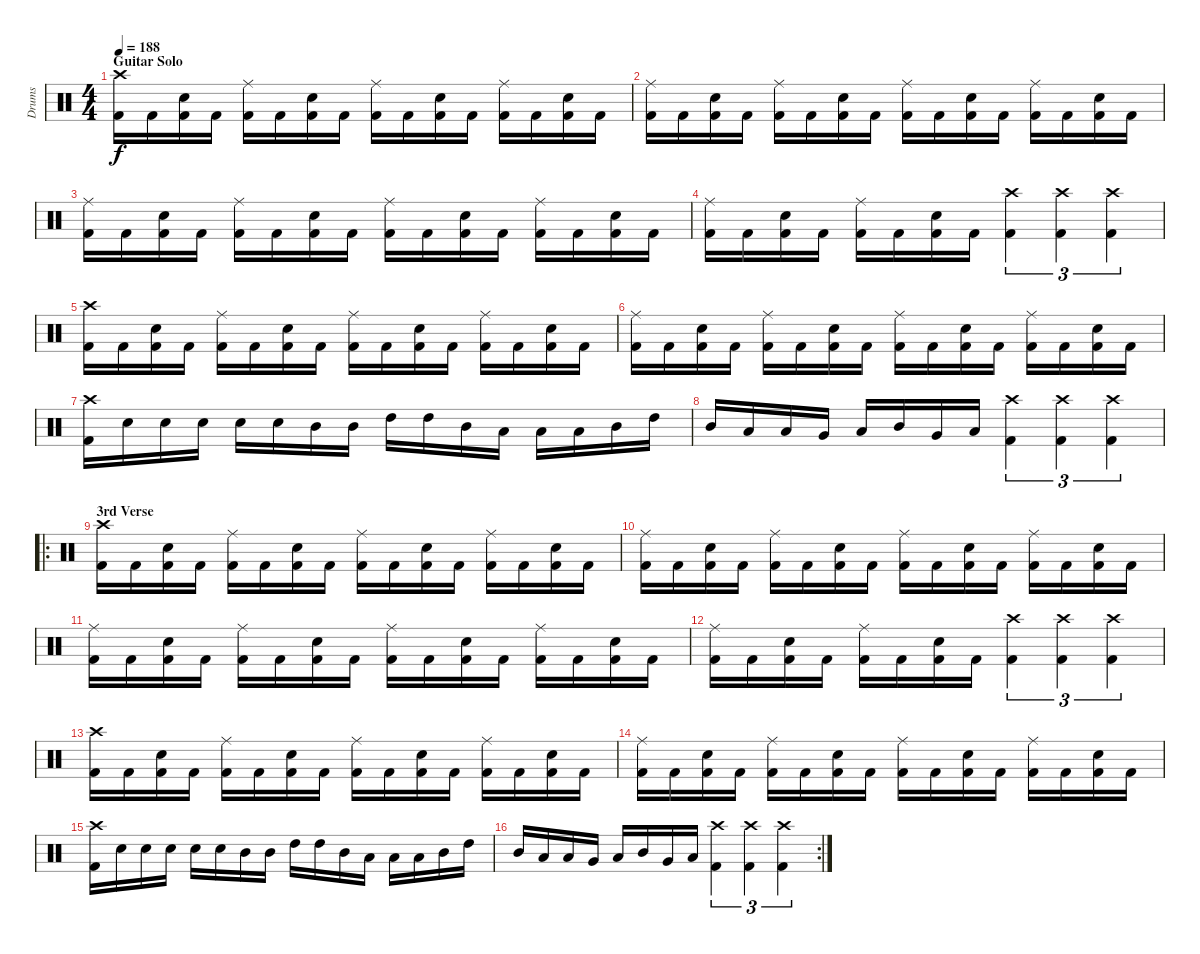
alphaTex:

\track ("Drums" "Drums") {instrument percussion}
\staff {score}
\articulation defaults
\ts (4 4)
\section ("" "Guitar Solo")
\tempo 188
\clef neutral
\ks c
("Crash high (hit)" "Kick (hit) 2").16{dy f} "Kick (hit) 2".16 ("Electric Snare (hit)" "Kick (hit) 2").16 "Kick (hit) 2".16 ("Ride (middle)" "Kick (hit) 2").16 "Kick (hit) 2".16 ("Electric Snare (hit)" "Kick (hit) 2").16 "Kick (hit) 2".16 ("Ride (middle)" "Kick (hit) 2").16 "Kick (hit) 2".16 ("Electric Snare (hit)" "Kick (hit) 2").16 "Kick (hit) 2".16 ("Ride (middle)" "Kick (hit) 2").16 "Kick (hit) 2".16 ("Electric Snare (hit)" "Kick (hit) 2").16 "Kick (hit) 2".16 |
("Ride (middle)" "Kick (hit) 2").16 "Kick (hit) 2".16 ("Electric Snare (hit)" "Kick (hit) 2").16 "Kick (hit) 2".16 ("Ride (middle)" "Kick (hit) 2").16 "Kick (hit) 2".16 ("Electric Snare (hit)" "Kick (hit) 2").16 "Kick (hit) 2".16 ("Ride (middle)" "Kick (hit) 2").16 "Kick (hit) 2".16 ("Electric Snare (hit)" "Kick (hit) 2").16 "Kick (hit) 2".16 ("Ride (middle)" "Kick (hit) 2").16 "Kick (hit) 2".16 ("Electric Snare (hit)" "Kick (hit) 2").16 "Kick (hit) 2".16 |
("Ride (middle)" "Kick (hit) 2").16 "Kick (hit) 2".16 ("Electric Snare (hit)" "Kick (hit) 2").16 "Kick (hit) 2".16 ("Ride (middle)" "Kick (hit) 2").16 "Kick (hit) 2".16 ("Electric Snare (hit)" "Kick (hit) 2").16 "Kick (hit) 2".16 ("Ride (middle)" "Kick (hit) 2").16 "Kick (hit) 2".16 ("Electric Snare (hit)" "Kick (hit) 2").16 "Kick (hit) 2".16 ("Ride (middle)" "Kick (hit) 2").16 "Kick (hit) 2".16 ("Electric Snare (hit)" "Kick (hit) 2").16 "Kick (hit) 2".16 |
("Ride (middle)" "Kick (hit) 2").16 "Kick (hit) 2".16 ("Electric Snare (hit)" "Kick (hit) 2").16 "Kick (hit) 2".16 ("Ride (middle)" "Kick (hit) 2").16 "Kick (hit) 2".16 ("Electric Snare (hit)" "Kick (hit) 2").16 "Kick (hit) 2".16 ("Crash high (hit)" "Kick (hit) 2").4{tu (3 2)} ("Crash high (hit)" "Kick (hit) 2").4{tu (3 2)} ("Crash high (hit)" "Kick (hit) 2").4{tu (3 2)} |
("Crash high (hit)" "Kick (hit) 2").16 "Kick (hit) 2".16 ("Electric Snare (hit)" "Kick (hit) 2").16 "Kick (hit) 2".16 ("Ride (middle)" "Kick (hit) 2").16 "Kick (hit) 2".16 ("Electric Snare (hit)" "Kick (hit) 2").16 "Kick (hit) 2".16 ("Ride (middle)" "Kick (hit) 2").16 "Kick (hit) 2".16 ("Electric Snare (hit)" "Kick (hit) 2").16 "Kick (hit) 2".16 ("Ride (middle)" "Kick (hit) 2").16 "Kick (hit) 2".16 ("Electric Snare (hit)" "Kick (hit) 2").16 "Kick (hit) 2".16 |
("Ride (middle)" "Kick (hit) 2").16 "Kick (hit) 2".16 ("Electric Snare (hit)" "Kick (hit) 2").16 "Kick (hit) 2".16 ("Ride (middle)" "Kick (hit) 2").16 "Kick (hit) 2".16 ("Electric Snare (hit)" "Kick (hit) 2").16 "Kick (hit) 2".16 ("Ride (middle)" "Kick (hit) 2").16 "Kick (hit) 2".16 ("Electric Snare (hit)" "Kick (hit) 2").16 "Kick (hit) 2".16 ("Ride (middle)" "Kick (hit) 2").16 "Kick (hit) 2".16 ("Electric Snare (hit)" "Kick (hit) 2").16 "Kick (hit) 2".16 |
("Crash high (hit)" "Kick (hit) 2").16 "Electric Snare (hit)".16 "Electric Snare (hit)".16 "Electric Snare (hit)".16 "Electric Snare (hit)".16 "Electric Snare (hit)".16 "Mid Tom (hit)".16 "Mid Tom (hit)".16 "High Tom (hit)".16 "High Tom (hit)".16 "Mid Tom (hit)".16 "Low Tom (hit)".16 "Low Tom (hit)".16 "Low Tom (hit)".16 "Mid Tom (hit)".16 "High Tom (hit)".16 |
"Mid Tom (hit)".16 "Low Tom (hit)".16 "Low Tom (hit)".16 "Very Low Tom (hit)".16 "Low Tom (hit)".16 "Mid Tom (hit)".16 "Very Low Tom (hit)".16 "Low Floor Tom (hit)".16 ("Crash high (hit)" "Kick (hit) 2").4{tu (3 2)} ("Crash high (hit)" "Kick (hit) 2").4{tu (3 2)} ("Crash high (hit)" "Kick (hit) 2").4{tu (3 2)} |
\ro
\section ("" "3rd Verse")
("Crash high (hit)" "Kick (hit) 2").16 "Kick (hit) 2".16 ("Electric Snare (hit)" "Kick (hit) 2").16 "Kick (hit) 2".16 ("Ride (middle)" "Kick (hit) 2").16 "Kick (hit) 2".16 ("Electric Snare (hit)" "Kick (hit) 2").16 "Kick (hit) 2".16 ("Ride (middle)" "Kick (hit) 2").16 "Kick (hit) 2".16 ("Electric Snare (hit)" "Kick (hit) 2").16 "Kick (hit) 2".16 ("Ride (middle)" "Kick (hit) 2").16 "Kick (hit) 2".16 ("Electric Snare (hit)" "Kick (hit) 2").16 "Kick (hit) 2".16 |
("Ride (middle)" "Kick (hit) 2").16 "Kick (hit) 2".16 ("Electric Snare (hit)" "Kick (hit) 2").16 "Kick (hit) 2".16 ("Ride (middle)" "Kick (hit) 2").16 "Kick (hit) 2".16 ("Electric Snare (hit)" "Kick (hit) 2").16 "Kick (hit) 2".16 ("Ride (middle)" "Kick (hit) 2").16 "Kick (hit) 2".16 ("Electric Snare (hit)" "Kick (hit) 2").16 "Kick (hit) 2".16 ("Ride (middle)" "Kick (hit) 2").16 "Kick (hit) 2".16 ("Electric Snare (hit)" "Kick (hit) 2").16 "Kick (hit) 2".16 |
("Ride (middle)" "Kick (hit) 2").16 "Kick (hit) 2".16 ("Electric Snare (hit)" "Kick (hit) 2").16 "Kick (hit) 2".16 ("Ride (middle)" "Kick (hit) 2").16 "Kick (hit) 2".16 ("Electric Snare (hit)" "Kick (hit) 2").16 "Kick (hit) 2".16 ("Ride (middle)" "Kick (hit) 2").16 "Kick (hit) 2".16 ("Electric Snare (hit)" "Kick (hit) 2").16 "Kick (hit) 2".16 ("Ride (middle)" "Kick (hit) 2").16 "Kick (hit) 2".16 ("Electric Snare (hit)" "Kick (hit) 2").16 "Kick (hit) 2".16 |
("Ride (middle)" "Kick (hit) 2").16 "Kick (hit) 2".16 ("Electric Snare (hit)" "Kick (hit) 2").16 "Kick (hit) 2".16 ("Ride (middle)" "Kick (hit) 2").16 "Kick (hit) 2".16 ("Electric Snare (hit)" "Kick (hit) 2").16 "Kick (hit) 2".16 ("Crash high (hit)" "Kick (hit) 2").4{tu (3 2)} ("Crash high (hit)" "Kick (hit) 2").4{tu (3 2)} ("Crash high (hit)" "Kick (hit) 2").4{tu (3 2)} |
("Crash high (hit)" "Kick (hit) 2").16 "Kick (hit) 2".16 ("Electric Snare (hit)" "Kick (hit) 2").16 "Kick (hit) 2".16 ("Ride (middle)" "Kick (hit) 2").16 "Kick (hit) 2".16 ("Electric Snare (hit)" "Kick (hit) 2").16 "Kick (hit) 2".16 ("Ride (middle)" "Kick (hit) 2").16 "Kick (hit) 2".16 ("Electric Snare (hit)" "Kick (hit) 2").16 "Kick (hit) 2".16 ("Ride (middle)" "Kick (hit) 2").16 "Kick (hit) 2".16 ("Electric Snare (hit)" "Kick (hit) 2").16 "Kick (hit) 2".16 |
("Ride (middle)" "Kick (hit) 2").16 "Kick (hit) 2".16 ("Electric Snare (hit)" "Kick (hit) 2").16 "Kick (hit) 2".16 ("Ride (middle)" "Kick (hit) 2").16 "Kick (hit) 2".16 ("Electric Snare (hit)" "Kick (hit) 2").16 "Kick (hit) 2".16 ("Ride (middle)" "Kick (hit) 2").16 "Kick (hit) 2".16 ("Electric Snare (hit)" "Kick (hit) 2").16 "Kick (hit) 2".16 ("Ride (middle)" "Kick (hit) 2").16 "Kick (hit) 2".16 ("Electric Snare (hit)" "Kick (hit) 2").16 "Kick (hit) 2".16 |
("Crash high (hit)" "Kick (hit) 2").16 "Electric Snare (hit)".16 "Electric Snare (hit)".16 "Electric Snare (hit)".16 "Electric Snare (hit)".16 "Electric Snare (hit)".16 "Mid Tom (hit)".16 "Mid Tom (hit)".16 "High Tom (hit)".16 "High Tom (hit)".16 "Mid Tom (hit)".16 "Low Tom (hit)".16 "Low Tom (hit)".16 "Low Tom (hit)".16 "Mid Tom (hit)".16 "High Tom (hit)".16 |
\rc 2 "Mid Tom (hit)".16 "Low Tom (hit)".16 "Low Tom (hit)".16 "Very Low Tom (hit)".16 "Low Tom (hit)".16 "Mid Tom (hit)".16 "Very Low Tom (hit)".16 "Low Floor Tom (hit)".16
("Crash high (hit)" "Kick (hit) 2").4{tu (3 2)} ("Crash high (hit)" "Kick (hit) 2").4{tu (3 2)} ("Crash high (hit)" "Kick (hit) 2").4{tu (3 2)}
